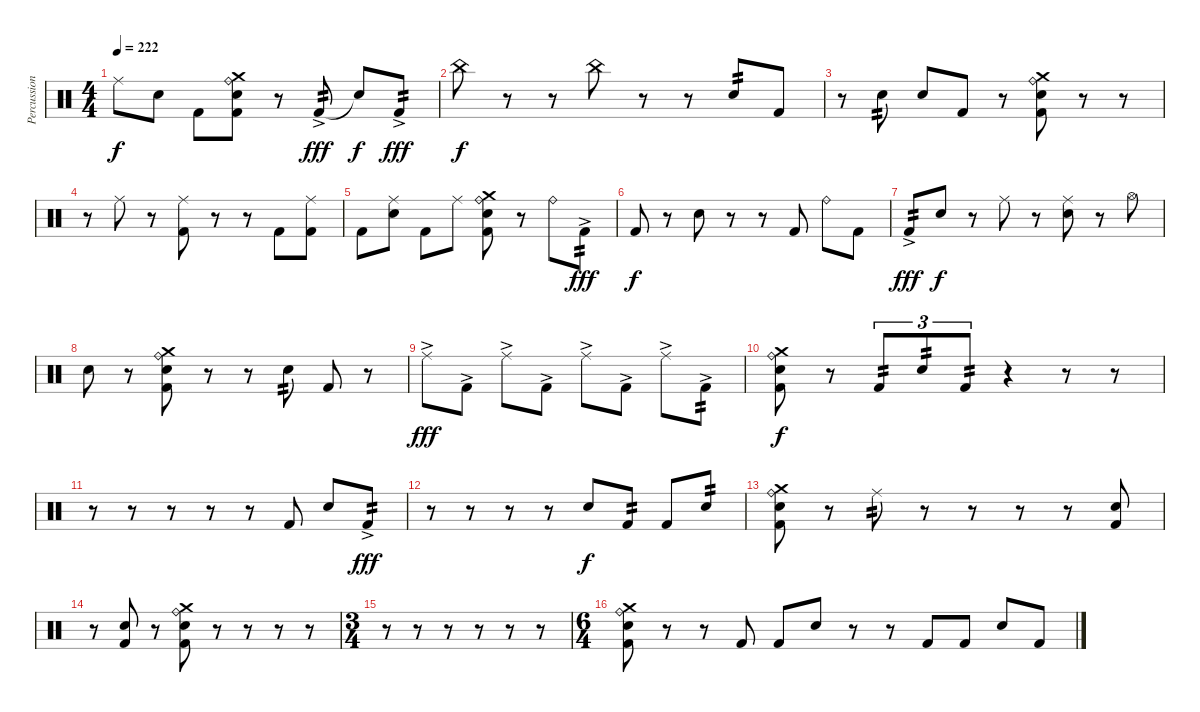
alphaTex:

\track ("Percussions" "Percussion") {instrument percussion}
\staff {score}
\articulation defaults
\ts (4 4)
\tempo 222
\clef neutral
\ks c "Ride (middle)".8{dy f} "Snare (hit) 2".8 "Kick (hit) 2".8
("Ride (bell)" "Crash medium (hit)" "Snare (hit) 2" "Kick (hit) 2").8 r.8 "Kick (hit) 2"{ac}.8{tp 2 dy fff} "Snare (hit)"{t}.8{dy f} "Kick (hit) 2"{ac}.8{tp 2 dy fff} |
"China (hit)".8{dy f} r.8 r.8 "China (hit)".8 r.8 r.8 "Snare (hit) 2".8{tp 2} "Kick (hit) 2".8 |
r.8 "Snare (hit) 2".8{tp 2} "Snare (hit) 2".8 "Kick (hit) 2".8 r.8 ("Ride (bell)" "Crash medium (hit)" "Snare (hit) 2" "Kick (hit) 2").8 r.8 r.8 |
r.8 "Ride (middle)".8 r.8 ("Kick (hit) 2" "Ride (middle)").8 r.8 r.8 "Kick (hit) 2".8 ("Kick (hit) 2" "Ride (middle)").8 |
"Kick (hit) 2".8 ("Snare (hit) 2" "Ride (middle)").8 "Kick (hit) 2".8 "Ride (middle)".8 ("Ride (bell)" "Snare (hit) 2" "Crash medium (hit)" "Kick (hit) 2").8 r.8 "Ride (bell)".8 "Kick (hit) 2"{ac}.8{tp 2 dy fff} |
"Kick (hit) 2".8{dy f} r.8 "Snare (hit) 2".8 r.8 r.8 "Kick (hit) 2".8 "Ride (bell)".8 "Kick (hit) 2".8 |
"Kick (hit) 2"{ac}.8{tp 2 dy fff} "Snare (hit) 2".8{dy f} r.8 "Ride (middle)".8 r.8 ("Snare (hit) 2" "Ride (middle)").8 r.8 "Hi-Hat (open)".8 |
"Snare (hit) 2".8 r.8 ("Ride (bell)" "Crash medium (hit)" "Snare (hit) 2" "Kick (hit) 2").8 r.8 r.8 "Snare (hit) 2".8{tp 2} "Kick (hit) 2".8 r.8 |
"Ride (middle)"{ac}.8{dy fff} "Kick (hit) 2"{ac}.8 "Ride (middle)"{ac}.8 "Kick (hit) 2"{ac}.8 "Ride (middle)"{ac}.8 "Kick (hit) 2"{ac}.8 "Ride (middle)"{ac}.8 "Kick (hit) 2"{ac}.8{tp 2} |
("Ride (bell)" "Crash medium (hit)" "Snare (hit) 2" "Kick (hit) 2").8{dy f} r.8 "Kick (hit) 2".8{tu (3 2) tp 2} "Snare (hit) 2".8{tu (3 2) tp 2} "Kick (hit) 2".8{tu (3 2) tp 2} r.4 r.8 r.8 |
r.8 r.8 r.8 r.8 r.8 "Kick (hit) 2".8 "Snare (hit) 2".8 "Kick (hit) 2"{ac}.8{tp 2 dy fff} |
r.8 r.8 r.8 r.8 "Snare (hit) 2".8{dy f} "Kick (hit) 2".8{tp 2} "Kick (hit) 2".8 "Snare (hit) 2".8{tp 2} |
("Ride (bell)" "Crash medium (hit)" "Snare (hit) 2" "Kick (hit) 2").8 r.8 "Ride (middle)".8{tp 2} r.8 r.8 r.8 r.8 ("Kick (hit) 2" "Snare (hit) 2").8 |
r.8 ("Kick (hit) 2" "Snare (hit) 2").8 r.8 ("Ride (bell)" "Crash medium (hit)" "Snare (hit) 2" "Kick (hit) 2").8 r.8 r.8 r.8 r.8 |
\ts (3 4)
r.8 r.8 r.8 r.8 r.8 r.8 |
\ts (6 4)
("Ride (bell)" "Crash medium (hit)" "Snare (hit) 2" "Kick (hit) 2").8 r.8 r.8 "Kick (hit) 2".8 "Kick (hit) 2".8 "Snare (hit) 2".8 r.8 r.8 "Kick (hit) 2".8 "Kick (hit) 2".8 "Snare (hit) 2".8 "Kick (hit) 2".8
